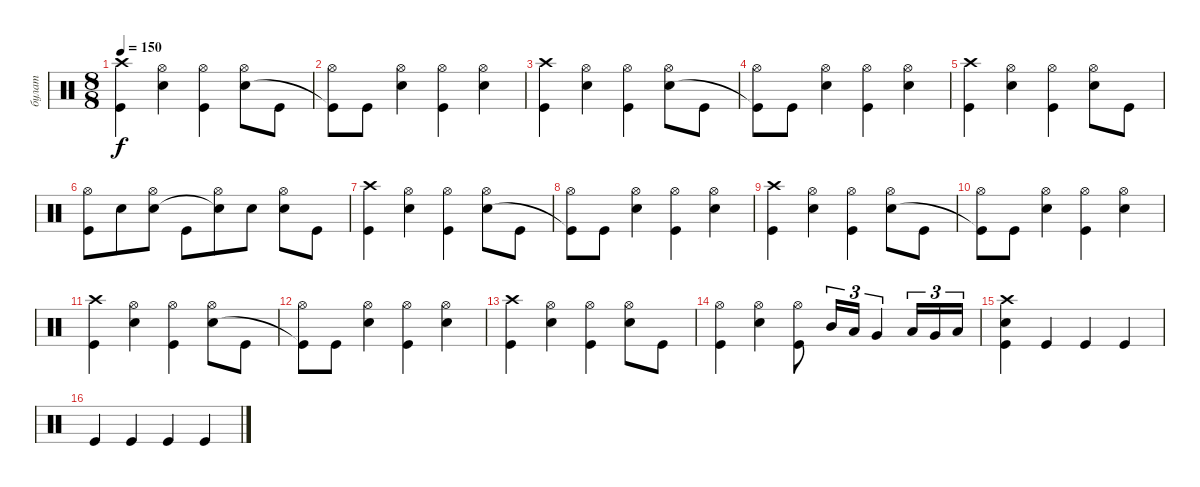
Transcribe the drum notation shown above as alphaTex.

\track ("булат" "булат") {instrument percussion}
\staff {score}
\articulation defaults
\ts (8 8)
\tempo 150
\clef neutral
\ks c
("Crash high (hit)" "Kick (hit)").4{dy f} ("Hi-Hat (open)" "Snare (hit) 2").4 ("Hi-Hat (open)" "Kick (hit)").4 ("Hi-Hat (open)" "Snare (hit) 2").8 "Kick (hit)".8 |
("Hi-Hat (open)" "Kick (hit)"{t}).8 "Kick (hit)".8 ("Hi-Hat (open)" "Snare (hit) 2").4 ("Hi-Hat (open)" "Kick (hit)").4 ("Hi-Hat (open)" "Snare (hit) 2").4 |
("Crash high (hit)" "Kick (hit)").4 ("Hi-Hat (open)" "Snare (hit) 2").4 ("Hi-Hat (open)" "Kick (hit)").4 ("Hi-Hat (open)" "Snare (hit) 2").8 "Kick (hit)".8 |
("Hi-Hat (open)" "Kick (hit)"{t}).8 "Kick (hit)".8 ("Hi-Hat (open)" "Snare (hit) 2").4 ("Hi-Hat (open)" "Kick (hit)").4 ("Hi-Hat (open)" "Snare (hit) 2").4 |
("Crash high (hit)" "Kick (hit)").4 ("Hi-Hat (open)" "Snare (hit) 2").4 ("Hi-Hat (open)" "Kick (hit)").4 ("Hi-Hat (open)" "Snare (hit) 2").8 "Kick (hit)".8 |
("Hi-Hat (open)" "Kick (hit)").8 "Snare (hit) 2".8 ("Hi-Hat (open)" "Snare (hit) 2").8 "Kick (hit)".8 ("Hi-Hat (open)" "Snare (hit)"{t}).8 "Snare (hit) 2".8 ("Hi-Hat (open)" "Snare (hit) 2").8 "Kick (hit)".8 |
("Crash high (hit)" "Kick (hit)").4 ("Hi-Hat (open)" "Snare (hit) 2").4 ("Hi-Hat (open)" "Kick (hit)").4 ("Hi-Hat (open)" "Snare (hit) 2").8 "Kick (hit)".8 |
("Hi-Hat (open)" "Kick (hit)"{t}).8 "Kick (hit)".8 ("Hi-Hat (open)" "Snare (hit) 2").4 ("Hi-Hat (open)" "Kick (hit)").4 ("Hi-Hat (open)" "Snare (hit) 2").4 |
("Crash high (hit)" "Kick (hit)").4 ("Hi-Hat (open)" "Snare (hit) 2").4 ("Hi-Hat (open)" "Kick (hit)").4 ("Hi-Hat (open)" "Snare (hit) 2").8 "Kick (hit)".8 |
("Hi-Hat (open)" "Kick (hit)"{t}).8 "Kick (hit)".8 ("Hi-Hat (open)" "Snare (hit) 2").4 ("Hi-Hat (open)" "Kick (hit)").4 ("Hi-Hat (open)" "Snare (hit) 2").4 |
("Crash high (hit)" "Kick (hit)").4 ("Hi-Hat (open)" "Snare (hit) 2").4 ("Hi-Hat (open)" "Kick (hit)").4 ("Hi-Hat (open)" "Snare (hit) 2").8 "Kick (hit)".8 |
("Hi-Hat (open)" "Kick (hit)"{t}).8 "Kick (hit)".8 ("Hi-Hat (open)" "Snare (hit) 2").4 ("Hi-Hat (open)" "Kick (hit)").4 ("Hi-Hat (open)" "Snare (hit) 2").4 |
("Crash high (hit)" "Kick (hit)").4 ("Hi-Hat (open)" "Snare (hit) 2").4 ("Hi-Hat (open)" "Kick (hit)").4 ("Hi-Hat (open)" "Snare (hit) 2").8 "Kick (hit)".8 |
("Hi-Hat (open)" "Kick (hit)").4 ("Hi-Hat (open)" "Snare (hit) 2").4 ("Hi-Hat (open)" "Kick (hit)").8 "Mid Tom (hit)".16{tu (3 2)} "Low Tom (hit)".16{tu (3 2)} "Very Low Tom (hit)".4{tu (3 2)} "Low Tom (hit)".16{tu (3 2)} "Very Low Tom (hit)".16{tu (3 2)} "Low Floor Tom (hit)".16{tu (3 2)} |
("Crash high (hit)" "Snare (hit) 2" "Kick (hit)").4 "Kick (hit)".4 "Kick (hit)".4 "Kick (hit)".4 |
"Kick (hit)".4 "Kick (hit)".4 "Kick (hit)".4 "Kick (hit)".4
